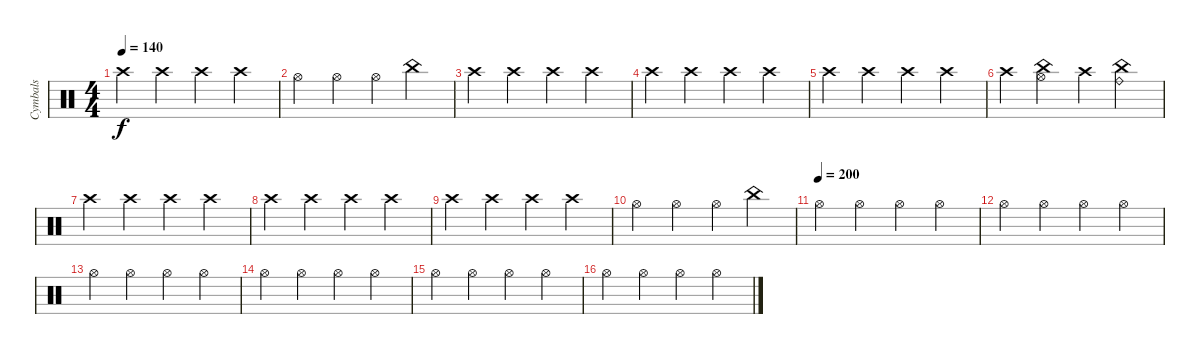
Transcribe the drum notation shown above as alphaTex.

\track ("Cymbals" "Cymbals") {instrument percussion}
\staff {score}
\articulation defaults
\ts (4 4)
\tempo 140
\clef neutral
\ks c "Crash high (hit)".4{dy f} "Crash high (hit)".4 "Crash high (hit)".4 "Crash high (hit)".4
|
"Hi-Hat (open)".4 "Hi-Hat (open)".4 "Hi-Hat (open)".4 "China (hit)".4 |
"Crash high (hit)".4 "Crash high (hit)".4 "Crash high (hit)".4 "Crash high (hit)".4 |
"Crash high (hit)".4 "Crash high (hit)".4 "Crash high (hit)".4 "Crash high (hit)".4 |
"Crash high (hit)".4 "Crash high (hit)".4 "Crash high (hit)".4 "Crash high (hit)".4 |
"Crash high (hit)".4 ("China (hit)" "Hi-Hat (open)").4 "Crash high (hit)".4 ("China (hit)" "Ride (bell)").4 |
"Crash high (hit)".4 "Crash high (hit)".4 "Crash high (hit)".4 "Crash high (hit)".4 |
"Crash high (hit)".4 "Crash high (hit)".4 "Crash high (hit)".4 "Crash high (hit)".4 |
"Crash high (hit)".4 "Crash high (hit)".4 "Crash high (hit)".4 "Crash high (hit)".4 |
"Hi-Hat (open)".4 "Hi-Hat (open)".4 "Hi-Hat (open)".4 "China (hit)".4 |
\tempo (200)
"Hi-Hat (open)".4 "Hi-Hat (open)".4 "Hi-Hat (open)".4 "Hi-Hat (open)".4 |
"Hi-Hat (open)".4 "Hi-Hat (open)".4 "Hi-Hat (open)".4 "Hi-Hat (open)".4 |
"Hi-Hat (open)".4 "Hi-Hat (open)".4 "Hi-Hat (open)".4 "Hi-Hat (open)".4 |
"Hi-Hat (open)".4 "Hi-Hat (open)".4 "Hi-Hat (open)".4 "Hi-Hat (open)".4 |
"Hi-Hat (open)".4 "Hi-Hat (open)".4 "Hi-Hat (open)".4 "Hi-Hat (open)".4 |
"Hi-Hat (open)".4 "Hi-Hat (open)".4 "Hi-Hat (open)".4 "Hi-Hat (open)".4
